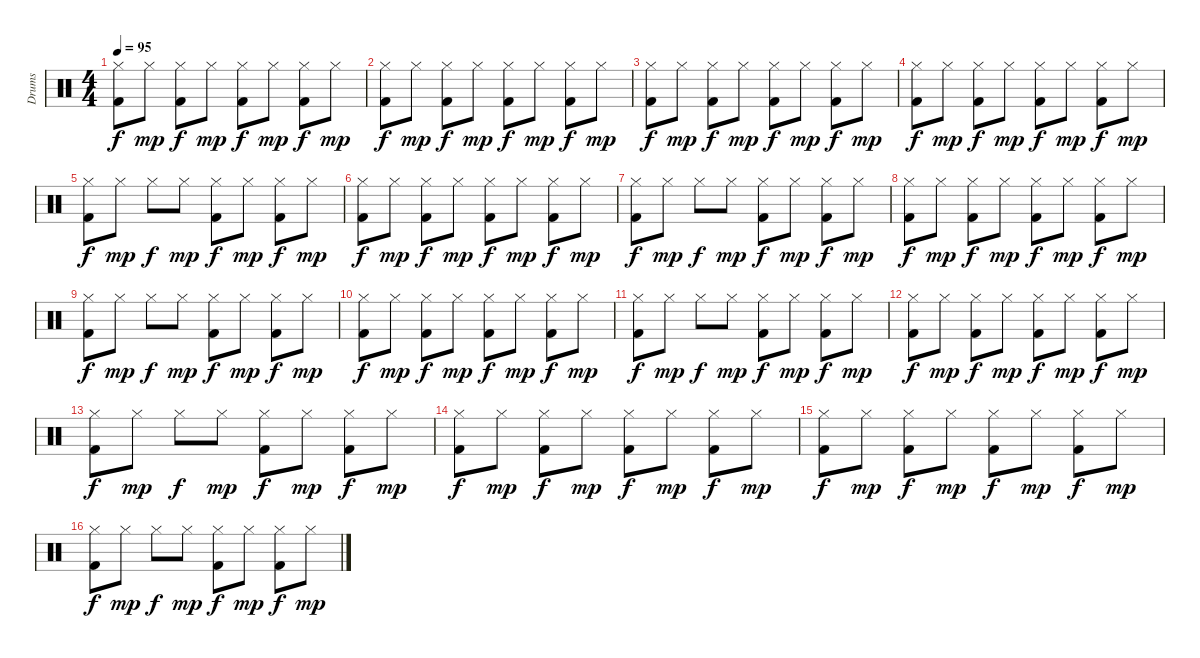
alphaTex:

\track ("Drums" "Drums") {instrument percussion}
\staff {score}
\articulation defaults
\ts (4 4)
\tempo 95
\clef neutral
\ks c
("Kick (hit) 2" "Hi-Hat (closed)").8{dy f} "Hi-Hat (closed)".8{dy mp} ("Kick (hit) 2" "Hi-Hat (closed)").8{dy f} "Hi-Hat (closed)".8{dy mp} ("Kick (hit) 2" "Hi-Hat (closed)").8{dy f} "Hi-Hat (closed)".8{dy mp} ("Kick (hit) 2" "Hi-Hat (closed)").8{dy f} "Hi-Hat (closed)".8{dy mp} |
("Kick (hit) 2" "Hi-Hat (closed)").8{dy f} "Hi-Hat (closed)".8{dy mp} ("Kick (hit) 2" "Hi-Hat (closed)").8{dy f} "Hi-Hat (closed)".8{dy mp} ("Kick (hit) 2" "Hi-Hat (closed)").8{dy f} "Hi-Hat (closed)".8{dy mp} ("Kick (hit) 2" "Hi-Hat (closed)").8{dy f} "Hi-Hat (closed)".8{dy mp} |
("Kick (hit) 2" "Hi-Hat (closed)").8{dy f} "Hi-Hat (closed)".8{dy mp} ("Kick (hit) 2" "Hi-Hat (closed)").8{dy f} "Hi-Hat (closed)".8{dy mp} ("Kick (hit) 2" "Hi-Hat (closed)").8{dy f} "Hi-Hat (closed)".8{dy mp} ("Kick (hit) 2" "Hi-Hat (closed)").8{dy f} "Hi-Hat (closed)".8{dy mp} |
("Kick (hit) 2" "Hi-Hat (closed)").8{dy f} "Hi-Hat (closed)".8{dy mp} ("Kick (hit) 2" "Hi-Hat (closed)").8{dy f} "Hi-Hat (closed)".8{dy mp} ("Kick (hit) 2" "Hi-Hat (closed)").8{dy f} "Hi-Hat (closed)".8{dy mp} ("Kick (hit) 2" "Hi-Hat (closed)").8{dy f} "Hi-Hat (closed)".8{dy mp} |
("Kick (hit) 2" "Hi-Hat (closed)").8{dy f} "Hi-Hat (closed)".8{dy mp} "Hi-Hat (closed)".8{dy f} "Hi-Hat (closed)".8{dy mp} ("Kick (hit) 2" "Hi-Hat (closed)").8{dy f} "Hi-Hat (closed)".8{dy mp} ("Kick (hit) 2" "Hi-Hat (closed)").8{dy f} "Hi-Hat (closed)".8{dy mp} |
("Kick (hit) 2" "Hi-Hat (closed)").8{dy f} "Hi-Hat (closed)".8{dy mp} ("Kick (hit) 2" "Hi-Hat (closed)").8{dy f} "Hi-Hat (closed)".8{dy mp} ("Kick (hit) 2" "Hi-Hat (closed)").8{dy f} "Hi-Hat (closed)".8{dy mp} ("Kick (hit) 2" "Hi-Hat (closed)").8{dy f} "Hi-Hat (closed)".8{dy mp} |
("Kick (hit) 2" "Hi-Hat (closed)").8{dy f} "Hi-Hat (closed)".8{dy mp} "Hi-Hat (closed)".8{dy f} "Hi-Hat (closed)".8{dy mp} ("Kick (hit) 2" "Hi-Hat (closed)").8{dy f} "Hi-Hat (closed)".8{dy mp} ("Kick (hit) 2" "Hi-Hat (closed)").8{dy f} "Hi-Hat (closed)".8{dy mp} |
("Kick (hit) 2" "Hi-Hat (closed)").8{dy f} "Hi-Hat (closed)".8{dy mp} ("Kick (hit) 2" "Hi-Hat (closed)").8{dy f} "Hi-Hat (closed)".8{dy mp} ("Kick (hit) 2" "Hi-Hat (closed)").8{dy f} "Hi-Hat (closed)".8{dy mp} ("Kick (hit) 2" "Hi-Hat (closed)").8{dy f} "Hi-Hat (closed)".8{dy mp} |
("Kick (hit) 2" "Hi-Hat (closed)").8{dy f} "Hi-Hat (closed)".8{dy mp} "Hi-Hat (closed)".8{dy f} "Hi-Hat (closed)".8{dy mp} ("Kick (hit) 2" "Hi-Hat (closed)").8{dy f} "Hi-Hat (closed)".8{dy mp} ("Kick (hit) 2" "Hi-Hat (closed)").8{dy f} "Hi-Hat (closed)".8{dy mp} |
("Kick (hit) 2" "Hi-Hat (closed)").8{dy f} "Hi-Hat (closed)".8{dy mp} ("Kick (hit) 2" "Hi-Hat (closed)").8{dy f} "Hi-Hat (closed)".8{dy mp} ("Kick (hit) 2" "Hi-Hat (closed)").8{dy f} "Hi-Hat (closed)".8{dy mp} ("Kick (hit) 2" "Hi-Hat (closed)").8{dy f} "Hi-Hat (closed)".8{dy mp} |
("Kick (hit) 2" "Hi-Hat (closed)").8{dy f} "Hi-Hat (closed)".8{dy mp} "Hi-Hat (closed)".8{dy f} "Hi-Hat (closed)".8{dy mp} ("Kick (hit) 2" "Hi-Hat (closed)").8{dy f} "Hi-Hat (closed)".8{dy mp} ("Kick (hit) 2" "Hi-Hat (closed)").8{dy f} "Hi-Hat (closed)".8{dy mp} |
("Kick (hit) 2" "Hi-Hat (closed)").8{dy f} "Hi-Hat (closed)".8{dy mp} ("Kick (hit) 2" "Hi-Hat (closed)").8{dy f} "Hi-Hat (closed)".8{dy mp} ("Kick (hit) 2" "Hi-Hat (closed)").8{dy f} "Hi-Hat (closed)".8{dy mp} ("Kick (hit) 2" "Hi-Hat (closed)").8{dy f} "Hi-Hat (closed)".8{dy mp} |
("Kick (hit) 2" "Hi-Hat (closed)").8{dy f} "Hi-Hat (closed)".8{dy mp} "Hi-Hat (closed)".8{dy f} "Hi-Hat (closed)".8{dy mp} ("Kick (hit) 2" "Hi-Hat (closed)").8{dy f} "Hi-Hat (closed)".8{dy mp} ("Kick (hit) 2" "Hi-Hat (closed)").8{dy f} "Hi-Hat (closed)".8{dy mp} |
("Kick (hit) 2" "Hi-Hat (closed)").8{dy f} "Hi-Hat (closed)".8{dy mp} ("Kick (hit) 2" "Hi-Hat (closed)").8{dy f} "Hi-Hat (closed)".8{dy mp} ("Kick (hit) 2" "Hi-Hat (closed)").8{dy f} "Hi-Hat (closed)".8{dy mp} ("Kick (hit) 2" "Hi-Hat (closed)").8{dy f} "Hi-Hat (closed)".8{dy mp} |
("Kick (hit) 2" "Hi-Hat (closed)").8{dy f} "Hi-Hat (closed)".8{dy mp} ("Kick (hit) 2" "Hi-Hat (closed)").8{dy f} "Hi-Hat (closed)".8{dy mp} ("Kick (hit) 2" "Hi-Hat (closed)").8{dy f} "Hi-Hat (closed)".8{dy mp} ("Kick (hit) 2" "Hi-Hat (closed)").8{dy f} "Hi-Hat (closed)".8{dy mp} |
("Kick (hit) 2" "Hi-Hat (closed)").8{dy f} "Hi-Hat (closed)".8{dy mp} "Hi-Hat (closed)".8{dy f} "Hi-Hat (closed)".8{dy mp} ("Kick (hit) 2" "Hi-Hat (closed)").8{dy f} "Hi-Hat (closed)".8{dy mp} ("Kick (hit) 2" "Hi-Hat (closed)").8{dy f} "Hi-Hat (closed)".8{dy mp}
